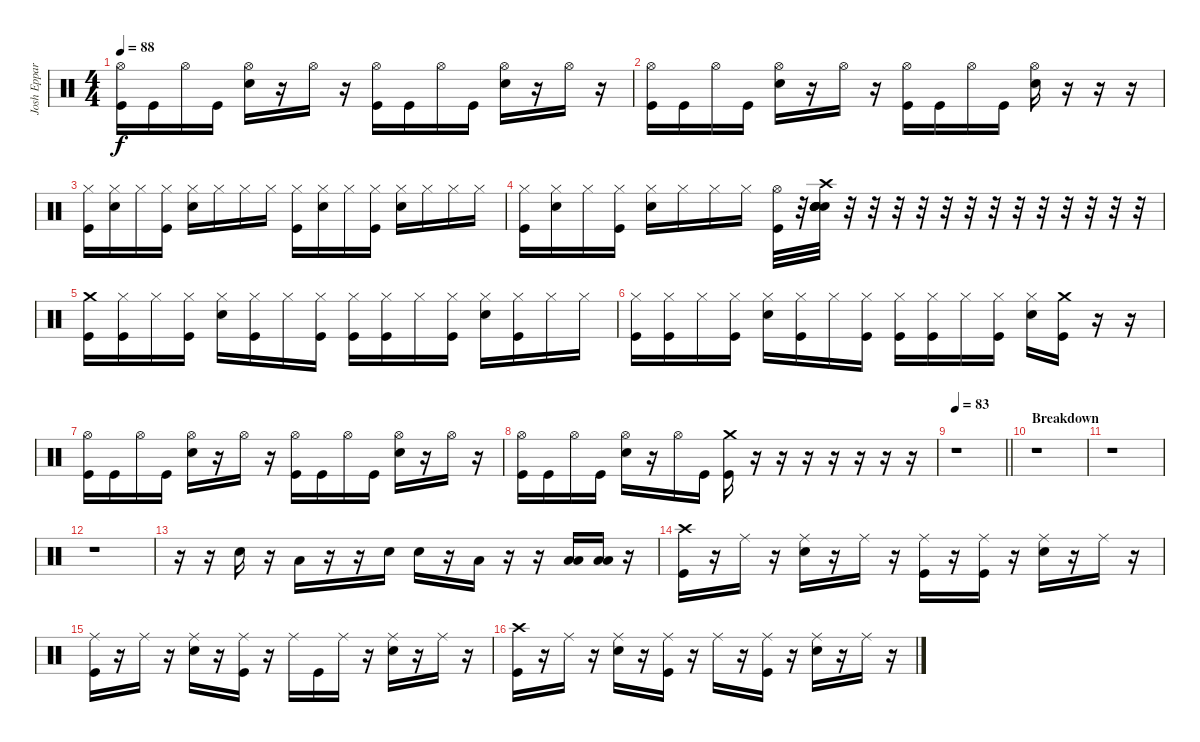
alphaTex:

\track ("Josh Eppard (Drums)" "Josh Eppar") {instrument percussion}
\staff {score}
\articulation defaults
\ts (4 4)
\tempo 88
\clef neutral
\ks c
("Hi-Hat (open)" "Kick (hit)").16{dy f} "Kick (hit)".16 "Hi-Hat (open)".16 "Kick (hit)".16 ("Hi-Hat (open)" "Electric Snare (hit)").16 r.16 "Hi-Hat (open)".16 r.16 ("Hi-Hat (open)" "Kick (hit)").16 "Kick (hit)".16 "Hi-Hat (open)".16 "Kick (hit)".16 ("Hi-Hat (open)" "Electric Snare (hit)").16 r.16 "Hi-Hat (open)".16 r.16 |
("Hi-Hat (open)" "Kick (hit)").16 "Kick (hit)".16 "Hi-Hat (open)".16 "Kick (hit)".16 ("Hi-Hat (open)" "Electric Snare (hit)").16 r.16 "Hi-Hat (open)".16 r.16 ("Hi-Hat (open)" "Kick (hit)").16 "Kick (hit)".16 "Hi-Hat (open)".16 "Kick (hit)".16 ("Hi-Hat (open)" "Electric Snare (hit)").16 r.16 r.16 r.16 |
("Hi-Hat (closed)" "Kick (hit)").16 ("Hi-Hat (closed)" "Electric Snare (hit)").16 "Hi-Hat (closed)".16 ("Hi-Hat (closed)" "Kick (hit)").16 ("Hi-Hat (closed)" "Electric Snare (hit)").16 "Hi-Hat (closed)".16 "Hi-Hat (closed)".16 "Hi-Hat (closed)".16 ("Hi-Hat (closed)" "Kick (hit)").16 ("Hi-Hat (closed)" "Electric Snare (hit)").16 "Hi-Hat (closed)".16 ("Hi-Hat (closed)" "Kick (hit)").16 ("Hi-Hat (closed)" "Electric Snare (hit)").16 "Hi-Hat (closed)".16 "Hi-Hat (closed)".16 "Hi-Hat (closed)".16 |
("Hi-Hat (closed)" "Kick (hit)").16 ("Hi-Hat (closed)" "Electric Snare (hit)").16 "Hi-Hat (closed)".16 ("Hi-Hat (closed)" "Kick (hit)").16 ("Hi-Hat (closed)" "Electric Snare (hit)").16 "Hi-Hat (closed)".16 "Hi-Hat (closed)".16 "Hi-Hat (closed)".16 ("Hi-Hat (open)" "Kick (hit)").32 r.32 ("Crash high (hit)" "Electric Snare (hit)" "Electric Snare (hit)" "Electric Snare (hit)" "Electric Snare (hit)" "Electric Snare (hit)").32 r.32 r.32 r.32 r.32 r.32 r.32 r.32 r.32 r.32 r.32 r.32 r.32 r.32 |
("Crash medium (hit)" "Kick (hit)").16 ("Hi-Hat (closed)" "Kick (hit)").16 "Hi-Hat (closed)".16 ("Hi-Hat (closed)" "Kick (hit)").16 ("Hi-Hat (closed)" "Electric Snare (hit)").16 ("Hi-Hat (closed)" "Kick (hit)").16 "Hi-Hat (closed)".16 ("Hi-Hat (closed)" "Kick (hit)").16 ("Hi-Hat (closed)" "Kick (hit)").16 ("Hi-Hat (closed)" "Kick (hit)").16 "Hi-Hat (closed)".16 ("Hi-Hat (closed)" "Kick (hit)").16 ("Hi-Hat (closed)" "Electric Snare (hit)").16 ("Hi-Hat (closed)" "Kick (hit)").16 "Hi-Hat (closed)".16 "Hi-Hat (closed)".16 |
("Hi-Hat (closed)" "Kick (hit)").16 ("Hi-Hat (closed)" "Kick (hit)").16 "Hi-Hat (closed)".16 ("Hi-Hat (closed)" "Kick (hit)").16 ("Hi-Hat (closed)" "Electric Snare (hit)").16 ("Hi-Hat (closed)" "Kick (hit)").16 "Hi-Hat (closed)".16 ("Hi-Hat (closed)" "Kick (hit)").16 ("Hi-Hat (closed)" "Kick (hit)").16 ("Hi-Hat (closed)" "Kick (hit)").16 "Hi-Hat (closed)".16 ("Hi-Hat (closed)" "Kick (hit)").16 ("Hi-Hat (closed)" "Electric Snare (hit)").16 ("Crash medium (hit)" "Kick (hit)").16 r.16 r.16 |
("Hi-Hat (open)" "Kick (hit)").16 "Kick (hit)".16 "Hi-Hat (open)".16 "Kick (hit)".16 ("Hi-Hat (open)" "Electric Snare (hit)").16 r.16 "Hi-Hat (open)".16 r.16 ("Hi-Hat (open)" "Kick (hit)").16 "Kick (hit)".16 "Hi-Hat (open)".16 "Kick (hit)".16 ("Hi-Hat (open)" "Electric Snare (hit)").16 r.16 "Hi-Hat (open)".16 r.16 |
("Hi-Hat (open)" "Kick (hit)").16 "Kick (hit)".16 "Hi-Hat (open)".16 "Kick (hit)".16 ("Hi-Hat (open)" "Electric Snare (hit)").16 r.16 "Hi-Hat (open)".16 "Kick (hit)".16 ("Crash medium (hit)" "Kick (hit)").16 r.16 r.16 r.16 r.16 r.16 r.16 r.16 |
\tempo 83
\barLineRight lightlight
r.1 |
\section ("" "Breakdown")
r.1 |
r.1 |
r.1 |
r.16 r.16 "Electric Snare (hit)".16 r.16 "Low Tom (hit)".16 r.16 r.16 "Electric Snare (hit)".16 "Electric Snare (hit)".16 r.16 "Low Tom (hit)".16 r.16 r.16 ("Low Tom (hit)" "Low Floor Tom (hit)").16 ("Low Tom (hit)" "Low Floor Tom (hit)").16 r.16 |
("Crash high (hit)" "Kick (hit)").16 r.16 "Ride (middle)".16 r.16 ("Ride (middle)" "Electric Snare (hit)").16 r.16 "Ride (middle)".16 r.16 ("Ride (middle)" "Kick (hit)").16 r.16 ("Ride (middle)" "Kick (hit)").16 r.16 ("Ride (middle)" "Electric Snare (hit)").16 r.16 "Ride (middle)".16 r.16 |
("Ride (middle)" "Kick (hit)").16 r.16 "Ride (middle)".16 r.16 ("Ride (middle)" "Electric Snare (hit)").16 r.16 ("Ride (middle)" "Kick (hit)").16 r.16 "Ride (middle)".16 "Kick (hit)".16 "Ride (middle)".16 r.16 ("Ride (middle)" "Electric Snare (hit)").16 r.16 "Ride (middle)".16 r.16 |
("Crash high (hit)" "Kick (hit)").16 r.16 "Ride (middle)".16 r.16 ("Ride (middle)" "Electric Snare (hit)").16 r.16 ("Ride (middle)" "Kick (hit)").16 r.16 "Ride (middle)".16 r.16 ("Ride (middle)" "Kick (hit)").16 r.16 ("Ride (middle)" "Electric Snare (hit)").16 r.16 "Ride (middle)".16 r.16
